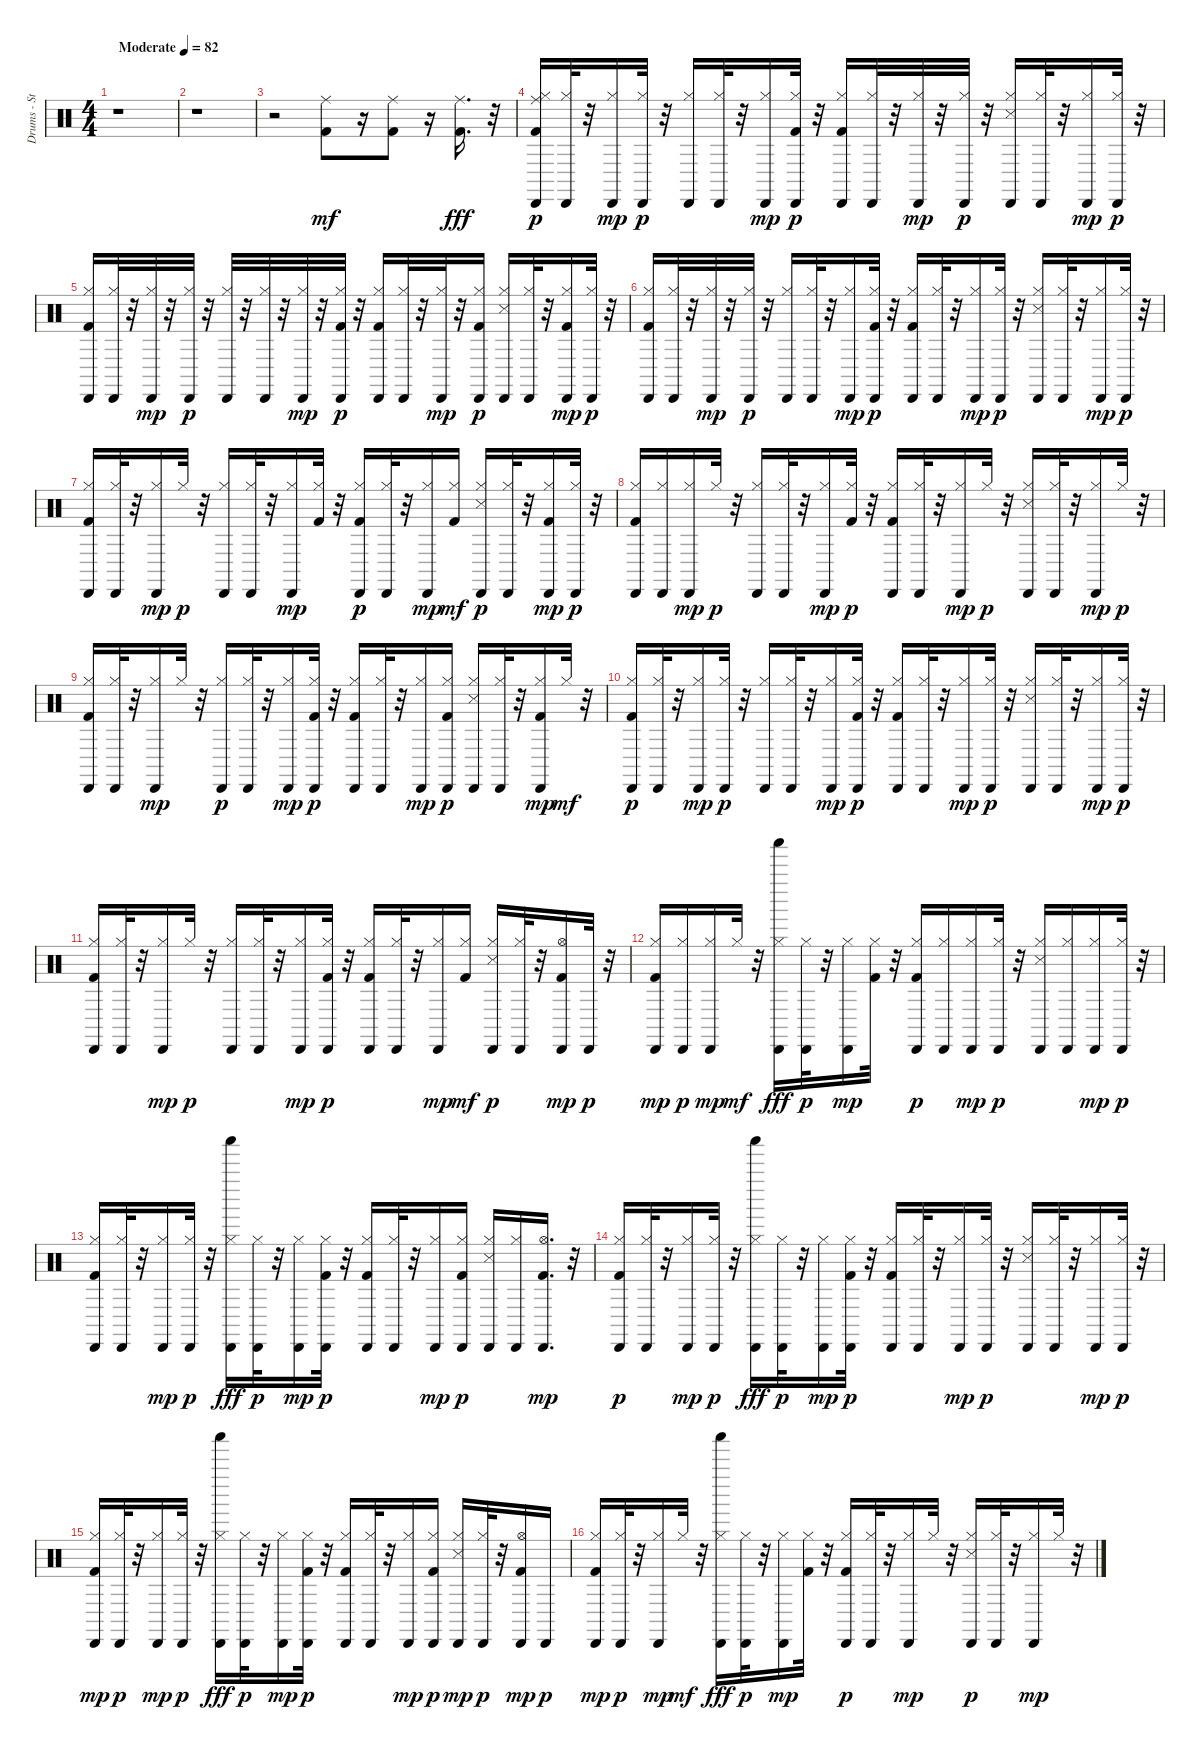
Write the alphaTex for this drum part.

\track ("Drums - Standard" "Drums - St") {instrument percussion}
\staff {score}
\articulation defaults
\ts (4 4)
\tempo (82 "Moderate")
\clef neutral
\ks c
r.1{dy mf} |
r.1 |
r.2 ("Kick (hit) 2" "Ride (middle)").8 r.16 ("Kick (hit) 2" "Ride (middle)").8 r.16 ("Kick (hit) 2" "Ride (middle)").16{d dy fff} r.32 |
("Kick (hit) 2" "Hi-Hat (closed)" "Ride (middle)" "Cabasa (hit)").16{dy p} ("Hi-Hat (closed)" "Cabasa (hit)").32 r.32 ("Hi-Hat (closed)" "Cabasa (hit)").16{dy mp} ("Hi-Hat (closed)" "Cabasa (hit)").32{dy p} r.32 ("Hi-Hat (closed)" "Cabasa (hit)").16 ("Hi-Hat (closed)" "Cabasa (hit)").32 r.32 ("Hi-Hat (closed)" "Cabasa (hit)").16{dy mp} ("Kick (hit) 2" "Hi-Hat (closed)" "Cabasa (hit)").32{dy p} r.32 ("Kick (hit) 2" "Hi-Hat (closed)" "Cabasa (hit)").16 ("Hi-Hat (closed)" "Cabasa (hit)").32 r.32 ("Hi-Hat (closed)" "Cabasa (hit)").32{dy mp} r.32 ("Hi-Hat (closed)" "Cabasa (hit)").32{dy p} r.32 ("Snare (side stick) 3" "Hi-Hat (closed)" "Cabasa (hit)").16 ("Hi-Hat (closed)" "Cabasa (hit)").32 r.32 ("Hi-Hat (closed)" "Cabasa (hit)").16{dy mp} ("Hi-Hat (closed)" "Cabasa (hit)").32{dy p} r.32 |
("Kick (hit) 2" "Hi-Hat (closed)" "Cabasa (hit)").16 ("Hi-Hat (closed)" "Cabasa (hit)").32 r.32 ("Hi-Hat (closed)" "Cabasa (hit)").32{dy mp} r.32 ("Hi-Hat (closed)" "Cabasa (hit)").32{dy p} r.32 ("Hi-Hat (closed)" "Cabasa (hit)").32 r.32 ("Hi-Hat (closed)" "Cabasa (hit)").32 r.32 ("Hi-Hat (closed)" "Cabasa (hit)").32{dy mp} r.32 ("Kick (hit) 2" "Hi-Hat (closed)" "Cabasa (hit)").32{dy p} r.32 ("Kick (hit) 2" "Hi-Hat (closed)" "Cabasa (hit)").16 ("Hi-Hat (closed)" "Cabasa (hit)").32 r.32 ("Hi-Hat (closed)" "Cabasa (hit)").32{dy mp} r.32 ("Kick (hit) 2" "Hi-Hat (closed)" "Cabasa (hit)").16{dy p} ("Snare (side stick) 3" "Hi-Hat (closed)" "Cabasa (hit)").16 ("Hi-Hat (closed)" "Cabasa (hit)").32 r.32 ("Kick (hit) 2" "Hi-Hat (closed)" "Cabasa (hit)").16{dy mp} ("Hi-Hat (closed)" "Cabasa (hit)").32{dy p} r.32 |
("Kick (hit) 2" "Hi-Hat (closed)" "Cabasa (hit)").16 ("Hi-Hat (closed)" "Cabasa (hit)").32 r.32 ("Hi-Hat (closed)" "Cabasa (hit)").32{dy mp} r.32 ("Hi-Hat (closed)" "Cabasa (hit)").32{dy p} r.32 ("Hi-Hat (closed)" "Cabasa (hit)").16 ("Hi-Hat (closed)" "Cabasa (hit)").32 r.32 ("Hi-Hat (closed)" "Cabasa (hit)").16{dy mp} ("Kick (hit) 2" "Hi-Hat (closed)" "Cabasa (hit)").32{dy p} r.32 ("Kick (hit) 2" "Hi-Hat (closed)" "Cabasa (hit)").16 ("Hi-Hat (closed)" "Cabasa (hit)").32 r.32 ("Hi-Hat (closed)" "Cabasa (hit)").16{dy mp} ("Hi-Hat (closed)" "Cabasa (hit)").32{dy p} r.32 ("Snare (side stick) 3" "Hi-Hat (closed)" "Cabasa (hit)").16 ("Hi-Hat (closed)" "Cabasa (hit)").32 r.32 ("Hi-Hat (closed)" "Cabasa (hit)").16{dy mp} ("Hi-Hat (closed)" "Cabasa (hit)").32{dy p} r.32 |
("Kick (hit) 2" "Hi-Hat (closed)" "Cabasa (hit)").16 ("Hi-Hat (closed)" "Cabasa (hit)").32 r.32 ("Hi-Hat (closed)" "Cabasa (hit)").16{dy mp} "Hi-Hat (closed)".32{dy p} r.32 ("Hi-Hat (closed)" "Cabasa (hit)").16 ("Hi-Hat (closed)" "Cabasa (hit)").32 r.32 ("Hi-Hat (closed)" "Cabasa (hit)").16{dy mp} ("Kick (hit) 2" "Hi-Hat (closed)").32 r.32 ("Kick (hit) 2" "Hi-Hat (closed)" "Cabasa (hit)").16{dy p} ("Hi-Hat (closed)" "Cabasa (hit)").32 r.32 ("Hi-Hat (closed)" "Cabasa (hit)").16{dy mp} ("Kick (hit) 2" "Hi-Hat (closed)").16{dy mf} ("Snare (side stick) 3" "Hi-Hat (closed)" "Cabasa (hit)").16{dy p} ("Hi-Hat (closed)" "Cabasa (hit)").32 r.32 ("Kick (hit) 2" "Hi-Hat (closed)" "Cabasa (hit)").16{dy mp} ("Hi-Hat (closed)" "Cabasa (hit)").32{dy p} r.32 |
("Kick (hit) 2" "Hi-Hat (closed)" "Cabasa (hit)").16 ("Hi-Hat (closed)" "Cabasa (hit)").16 ("Hi-Hat (closed)" "Cabasa (hit)").16{dy mp} "Hi-Hat (closed)".32{dy p} r.32 ("Hi-Hat (closed)" "Cabasa (hit)").16 ("Hi-Hat (closed)" "Cabasa (hit)").32 r.32 ("Hi-Hat (closed)" "Cabasa (hit)").16{dy mp} ("Kick (hit) 2" "Hi-Hat (closed)").32{dy p} r.32 ("Kick (hit) 2" "Hi-Hat (closed)" "Cabasa (hit)").16 ("Hi-Hat (closed)" "Cabasa (hit)").32 r.32 ("Hi-Hat (closed)" "Cabasa (hit)").16{dy mp} "Hi-Hat (closed)".32{dy p} r.32 ("Snare (side stick) 3" "Hi-Hat (closed)" "Cabasa (hit)").16 ("Hi-Hat (closed)" "Cabasa (hit)").32 r.32 ("Hi-Hat (closed)" "Cabasa (hit)").16{dy mp} "Hi-Hat (closed)".32{dy p} r.32 |
("Kick (hit) 2" "Hi-Hat (closed)" "Cabasa (hit)").16 ("Hi-Hat (closed)" "Cabasa (hit)").32 r.32 ("Hi-Hat (closed)" "Cabasa (hit)").16{dy mp} "Hi-Hat (closed)".32 r.32 ("Hi-Hat (closed)" "Cabasa (hit)").16{dy p} ("Hi-Hat (closed)" "Cabasa (hit)").32 r.32 ("Hi-Hat (closed)" "Cabasa (hit)").16{dy mp} ("Kick (hit) 2" "Hi-Hat (closed)" "Cabasa (hit)").32{dy p} r.32 ("Kick (hit) 2" "Hi-Hat (closed)" "Cabasa (hit)").16 ("Hi-Hat (closed)" "Cabasa (hit)").32 r.32 ("Hi-Hat (closed)" "Cabasa (hit)").16{dy mp} ("Kick (hit) 2" "Hi-Hat (closed)" "Cabasa (hit)").16{dy p} ("Snare (side stick) 3" "Hi-Hat (closed)" "Cabasa (hit)").16 ("Hi-Hat (closed)" "Cabasa (hit)").32 r.32 ("Kick (hit) 2" "Hi-Hat (closed)" "Cabasa (hit)").16{dy mp} "Hi-Hat (closed)".32{dy mf} r.32 |
("Kick (hit) 2" "Hi-Hat (closed)" "Cabasa (hit)").16{dy p} ("Hi-Hat (closed)" "Cabasa (hit)").32 r.32 ("Hi-Hat (closed)" "Cabasa (hit)").16{dy mp} ("Hi-Hat (closed)" "Cabasa (hit)").32{dy p} r.32 ("Hi-Hat (closed)" "Cabasa (hit)").16 ("Hi-Hat (closed)" "Cabasa (hit)").32 r.32 ("Hi-Hat (closed)" "Cabasa (hit)").16{dy mp} ("Kick (hit) 2" "Hi-Hat (closed)" "Cabasa (hit)").32{dy p} r.32 ("Kick (hit) 2" "Hi-Hat (closed)" "Cabasa (hit)").16 ("Hi-Hat (closed)" "Cabasa (hit)").32 r.32 ("Hi-Hat (closed)" "Cabasa (hit)").16{dy mp} ("Hi-Hat (closed)" "Cabasa (hit)").32{dy p} r.32 ("Snare (side stick) 3" "Hi-Hat (closed)" "Cabasa (hit)").16 ("Hi-Hat (closed)" "Cabasa (hit)").32 r.32 ("Hi-Hat (closed)" "Cabasa (hit)").16{dy mp} ("Hi-Hat (closed)" "Cabasa (hit)").32{dy p} r.32 |
("Kick (hit) 2" "Hi-Hat (closed)" "Cabasa (hit)").16 ("Hi-Hat (closed)" "Cabasa (hit)").32 r.32 ("Hi-Hat (closed)" "Cabasa (hit)").16{dy mp} "Hi-Hat (closed)".32{dy p} r.32 ("Hi-Hat (closed)" "Cabasa (hit)").16 ("Hi-Hat (closed)" "Cabasa (hit)").32 r.32 ("Hi-Hat (closed)" "Cabasa (hit)").16{dy mp} ("Kick (hit) 2" "Hi-Hat (closed)" "Cabasa (hit)").32{dy p} r.32 ("Kick (hit) 2" "Hi-Hat (closed)" "Cabasa (hit)").16 ("Hi-Hat (closed)" "Cabasa (hit)").32 r.32 ("Hi-Hat (closed)" "Cabasa (hit)").16{dy mp} ("Kick (hit) 2" "Hi-Hat (closed)").16{dy mf} ("Snare (side stick) 3" "Hi-Hat (closed)" "Cabasa (hit)").16{dy p} ("Hi-Hat (closed)" "Cabasa (hit)").32 r.32 ("Kick (hit) 2" "Hi-Hat (open)" "Cabasa (hit)").16{dy mp} "Cabasa (hit)".32{dy p} r.32 |
("Kick (hit) 2" "Hi-Hat (closed)" "Cabasa (hit)").16{dy mp} ("Hi-Hat (closed)" "Cabasa (hit)").16{dy p} ("Hi-Hat (closed)" "Cabasa (hit)").16{dy mp} "Hi-Hat (closed)".32{dy mf} r.32 ("Hi-Hat (closed)" "Cabasa (hit)" "Shaker (hit)").16{dy fff} ("Hi-Hat (closed)" "Cabasa (hit)").32{dy p} r.32 ("Hi-Hat (closed)" "Cabasa (hit)").16{dy mp} ("Kick (hit) 2" "Hi-Hat (closed)").32 r.32 ("Kick (hit) 2" "Hi-Hat (closed)" "Cabasa (hit)").16{dy p} ("Hi-Hat (closed)" "Cabasa (hit)").16 ("Hi-Hat (closed)" "Cabasa (hit)").16{dy mp} ("Hi-Hat (closed)" "Cabasa (hit)").32{dy p} r.32 ("Snare (side stick) 3" "Hi-Hat (closed)" "Cabasa (hit)").16 ("Hi-Hat (closed)" "Cabasa (hit)").16 ("Hi-Hat (closed)" "Cabasa (hit)").16{dy mp} ("Hi-Hat (closed)" "Cabasa (hit)").32{dy p} r.32 |
("Kick (hit) 2" "Hi-Hat (closed)" "Cabasa (hit)").16 ("Hi-Hat (closed)" "Cabasa (hit)").32 r.32 ("Hi-Hat (closed)" "Cabasa (hit)").16{dy mp} ("Hi-Hat (closed)" "Cabasa (hit)").32{dy p} r.32 ("Hi-Hat (closed)" "Cabasa (hit)" "Shaker (hit)").16{dy fff} ("Hi-Hat (closed)" "Cabasa (hit)").32{dy p} r.32 ("Hi-Hat (closed)" "Cabasa (hit)").16{dy mp} ("Kick (hit) 2" "Hi-Hat (closed)" "Cabasa (hit)").32{dy p} r.32 ("Kick (hit) 2" "Hi-Hat (closed)" "Cabasa (hit)").16 ("Hi-Hat (closed)" "Cabasa (hit)").32 r.32 ("Hi-Hat (closed)" "Cabasa (hit)").16{dy mp} ("Kick (hit) 2" "Hi-Hat (closed)" "Cabasa (hit)").16{dy p} ("Snare (side stick) 3" "Hi-Hat (closed)" "Cabasa (hit)").16 ("Hi-Hat (closed)" "Cabasa (hit)").16 ("Kick (hit) 2" "Hi-Hat (open)" "Cabasa (hit)").16{d dy mp} r.32 |
("Kick (hit) 2" "Hi-Hat (closed)" "Cabasa (hit)").16{dy p} ("Hi-Hat (closed)" "Cabasa (hit)").32 r.32 ("Hi-Hat (closed)" "Cabasa (hit)").16{dy mp} ("Hi-Hat (closed)" "Cabasa (hit)").32{dy p} r.32 ("Hi-Hat (closed)" "Cabasa (hit)" "Shaker (hit)").16{dy fff} ("Hi-Hat (closed)" "Cabasa (hit)").32{dy p} r.32 ("Hi-Hat (closed)" "Cabasa (hit)").16{dy mp} ("Kick (hit) 2" "Hi-Hat (closed)" "Cabasa (hit)").32{dy p} r.32 ("Kick (hit) 2" "Hi-Hat (closed)" "Cabasa (hit)").16 ("Hi-Hat (closed)" "Cabasa (hit)").32 r.32 ("Hi-Hat (closed)" "Cabasa (hit)").16{dy mp} ("Hi-Hat (closed)" "Cabasa (hit)").32{dy p} r.32 ("Snare (side stick) 3" "Hi-Hat (closed)" "Cabasa (hit)").16 ("Hi-Hat (closed)" "Cabasa (hit)").32 r.32 ("Hi-Hat (closed)" "Cabasa (hit)").16{dy mp} ("Hi-Hat (closed)" "Cabasa (hit)").32{dy p} r.32 |
("Kick (hit) 2" "Hi-Hat (closed)" "Cabasa (hit)").16{dy mp} ("Hi-Hat (closed)" "Cabasa (hit)").32{dy p} r.32 ("Hi-Hat (closed)" "Cabasa (hit)").16{dy mp} ("Hi-Hat (closed)" "Cabasa (hit)").32{dy p} r.32 ("Hi-Hat (closed)" "Cabasa (hit)" "Shaker (hit)").16{dy fff} ("Hi-Hat (closed)" "Cabasa (hit)").32{dy p} r.32 ("Hi-Hat (closed)" "Cabasa (hit)").16{dy mp} ("Kick (hit) 2" "Hi-Hat (closed)" "Cabasa (hit)").32{dy p} r.32 ("Kick (hit) 2" "Hi-Hat (closed)" "Cabasa (hit)").16 ("Hi-Hat (closed)" "Cabasa (hit)").32 r.32 ("Hi-Hat (closed)" "Cabasa (hit)").16{dy mp} ("Kick (hit) 2" "Hi-Hat (closed)" "Cabasa (hit)").16{dy p} ("Snare (side stick) 3" "Hi-Hat (closed)" "Cabasa (hit)").16{dy mp} ("Hi-Hat (closed)" "Cabasa (hit)").32{dy p} r.32 ("Kick (hit) 2" "Hi-Hat (open)" "Cabasa (hit)").16{dy mp} "Cabasa (hit)".16{dy p} |
("Kick (hit) 2" "Hi-Hat (closed)" "Cabasa (hit)").16{dy mp} ("Hi-Hat (closed)" "Cabasa (hit)").32{dy p} r.32 ("Hi-Hat (closed)" "Cabasa (hit)").16{dy mp} "Hi-Hat (closed)".32{dy mf} r.32 ("Hi-Hat (closed)" "Cabasa (hit)" "Shaker (hit)").16{dy fff} ("Hi-Hat (closed)" "Cabasa (hit)").32{dy p} r.32 ("Hi-Hat (closed)" "Cabasa (hit)").16{dy mp} ("Kick (hit) 2" "Hi-Hat (closed)").32 r.32 ("Kick (hit) 2" "Hi-Hat (closed)" "Cabasa (hit)").16{dy p} ("Hi-Hat (closed)" "Cabasa (hit)").32 r.32 ("Hi-Hat (closed)" "Cabasa (hit)").16{dy mp} "Hi-Hat (closed)".32 r.32 ("Snare (side stick) 3" "Hi-Hat (closed)" "Cabasa (hit)").16{dy p} ("Hi-Hat (closed)" "Cabasa (hit)").32 r.32 ("Hi-Hat (closed)" "Cabasa (hit)").16{dy mp} "Hi-Hat (closed)".32 r.32
